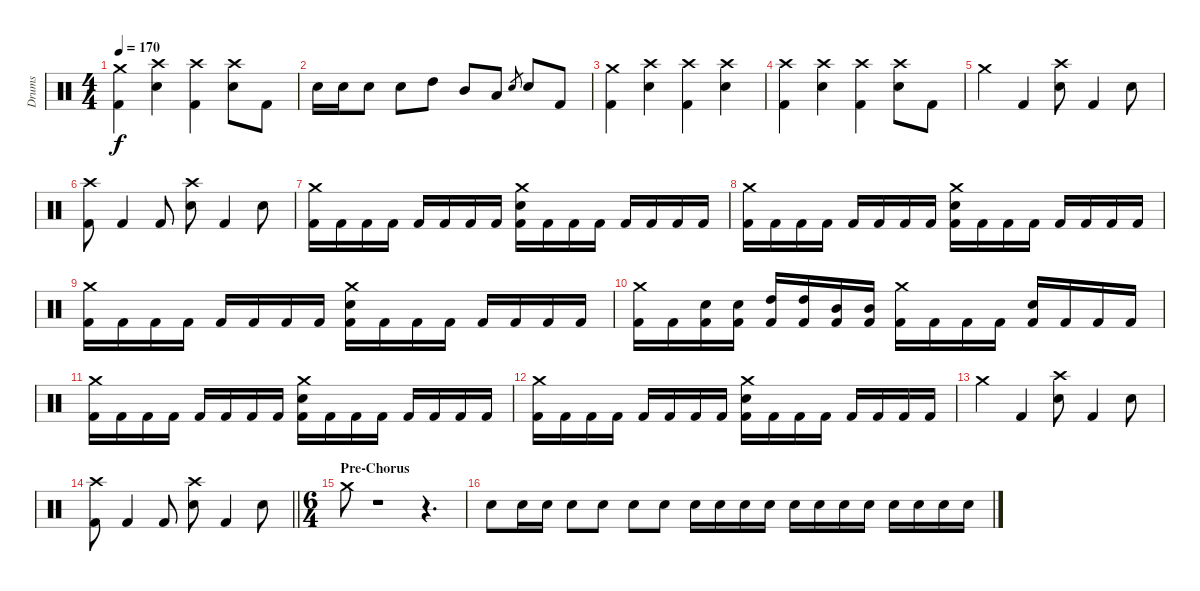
\track ("Drums" "Drums") {instrument percussion}
\staff {score}
\articulation defaults
\ts (4 4)
\tempo 170
\clef neutral
\ks c
("Crash medium (hit)" "Kick (hit) 2").4{dy f} ("Crash high (hit)" "Electric Snare (hit)").4 ("Crash high (hit)" "Kick (hit) 2").4 ("Crash high (hit)" "Electric Snare (hit)").8 "Kick (hit) 2".8 |
"Electric Snare (hit)".16 "Electric Snare (hit)".16 "Electric Snare (hit)".8 "Electric Snare (hit)".8 "High Tom (hit)".8 "Mid Tom (hit)".8 "Low Tom (hit)".8 "Electric Snare (hit)".8{gr} "Electric Snare (hit)".8 "Kick (hit) 2".8 |
("Crash medium (hit)" "Kick (hit) 2").4 ("Crash high (hit)" "Electric Snare (hit)").4 ("Crash high (hit)" "Kick (hit) 2").4 ("Crash high (hit)" "Electric Snare (hit)").4 |
("Crash high (hit)" "Kick (hit) 2").4 ("Crash high (hit)" "Electric Snare (hit)").4 ("Crash high (hit)" "Kick (hit) 2").4 ("Crash high (hit)" "Electric Snare (hit)").8 "Kick (hit) 2".8 |
"Crash medium (hit)".4 "Kick (hit) 2".4 ("Crash high (hit)" "Electric Snare (hit)").8 "Kick (hit) 2".4 "Electric Snare (hit)".8 |
("Crash high (hit)" "Kick (hit) 2").8 "Kick (hit) 2".4 "Kick (hit) 2".8 ("Crash high (hit)" "Electric Snare (hit)").8 "Kick (hit) 2".4 "Electric Snare (hit)".8 |
("Crash medium (hit)" "Kick (hit) 2").16 "Kick (hit) 2".16 "Kick (hit) 2".16 "Kick (hit) 2".16 "Kick (hit) 2".16 "Kick (hit) 2".16 "Kick (hit) 2".16 "Kick (hit) 2".16 ("Crash medium (hit)" "Electric Snare (hit)" "Kick (hit) 2").16 "Kick (hit) 2".16 "Kick (hit) 2".16 "Kick (hit) 2".16 "Kick (hit) 2".16 "Kick (hit) 2".16 "Kick (hit) 2".16 "Kick (hit) 2".16 |
("Crash medium (hit)" "Kick (hit) 2").16 "Kick (hit) 2".16 "Kick (hit) 2".16 "Kick (hit) 2".16 "Kick (hit) 2".16 "Kick (hit) 2".16 "Kick (hit) 2".16 "Kick (hit) 2".16 ("Crash medium (hit)" "Electric Snare (hit)" "Kick (hit) 2").16 "Kick (hit) 2".16 "Kick (hit) 2".16 "Kick (hit) 2".16 "Kick (hit) 2".16 "Kick (hit) 2".16 "Kick (hit) 2".16 "Kick (hit) 2".16 |
("Crash medium (hit)" "Kick (hit) 2").16 "Kick (hit) 2".16 "Kick (hit) 2".16 "Kick (hit) 2".16 "Kick (hit) 2".16 "Kick (hit) 2".16 "Kick (hit) 2".16 "Kick (hit) 2".16 ("Crash medium (hit)" "Electric Snare (hit)" "Kick (hit) 2").16 "Kick (hit) 2".16 "Kick (hit) 2".16 "Kick (hit) 2".16 "Kick (hit) 2".16 "Kick (hit) 2".16 "Kick (hit) 2".16 "Kick (hit) 2".16 |
("Crash medium (hit)" "Kick (hit) 2").16 "Kick (hit) 2".16 ("Electric Snare (hit)" "Kick (hit) 2").16 ("Electric Snare (hit)" "Kick (hit) 2").16 ("High Tom (hit)" "Kick (hit) 2").16 ("High Tom (hit)" "Kick (hit) 2").16 ("Mid Tom (hit)" "Kick (hit) 2").16 ("Mid Tom (hit)" "Kick (hit) 2").16 ("Crash medium (hit)" "Kick (hit) 2").16 "Kick (hit) 2".16 "Kick (hit) 2".16 "Kick (hit) 2".16 ("Electric Snare (hit)" "Kick (hit) 2").16 "Kick (hit) 2".16 "Kick (hit) 2".16 "Kick (hit) 2".16 |
("Crash medium (hit)" "Kick (hit) 2").16 "Kick (hit) 2".16 "Kick (hit) 2".16 "Kick (hit) 2".16 "Kick (hit) 2".16 "Kick (hit) 2".16 "Kick (hit) 2".16 "Kick (hit) 2".16 ("Crash medium (hit)" "Electric Snare (hit)" "Kick (hit) 2").16 "Kick (hit) 2".16 "Kick (hit) 2".16 "Kick (hit) 2".16 "Kick (hit) 2".16 "Kick (hit) 2".16 "Kick (hit) 2".16 "Kick (hit) 2".16 |
("Crash medium (hit)" "Kick (hit) 2").16 "Kick (hit) 2".16 "Kick (hit) 2".16 "Kick (hit) 2".16 "Kick (hit) 2".16 "Kick (hit) 2".16 "Kick (hit) 2".16 "Kick (hit) 2".16 ("Crash medium (hit)" "Electric Snare (hit)" "Kick (hit) 2").16 "Kick (hit) 2".16 "Kick (hit) 2".16 "Kick (hit) 2".16 "Kick (hit) 2".16 "Kick (hit) 2".16 "Kick (hit) 2".16 "Kick (hit) 2".16 |
"Crash medium (hit)".4 "Kick (hit) 2".4 ("Crash high (hit)" "Electric Snare (hit)").8 "Kick (hit) 2".4 "Electric Snare (hit)".8 |
\barLineRight lightlight
("Crash high (hit)" "Kick (hit) 2").8 "Kick (hit) 2".4 "Kick (hit) 2".8 ("Crash high (hit)" "Electric Snare (hit)").8 "Kick (hit) 2".4 "Electric Snare (hit)".8 |
\ts (6 4)
\section ("" "Pre-Chorus")
"Crash medium (hit)".8 r.1{volume 13} r.4{d} |
"Electric Snare (hit)".8{volume 10} "Electric Snare (hit)".16 "Electric Snare (hit)".16 "Electric Snare (hit)".8 "Electric Snare (hit)".8 "Electric Snare (hit)".8 "Electric Snare (hit)".8 "Electric Snare (hit)".16 "Electric Snare (hit)".16 "Electric Snare (hit)".16 "Electric Snare (hit)".16 "Electric Snare (hit)".16 "Electric Snare (hit)".16 "Electric Snare (hit)".16 "Electric Snare (hit)".16 "Electric Snare (hit)".16 "Electric Snare (hit)".16 "Electric Snare (hit)".16 "Electric Snare (hit)".16
